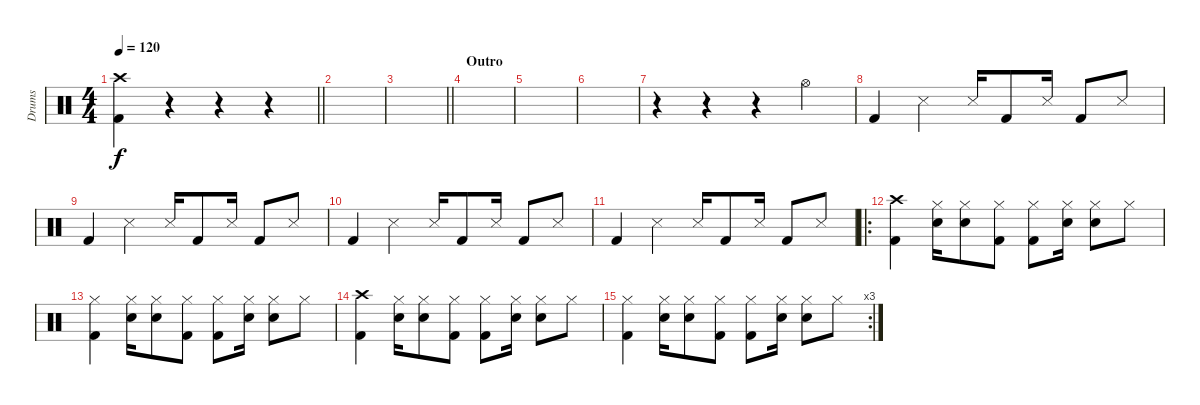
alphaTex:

\track ("Drums" "Drums") {instrument percussion}
\staff {score}
\articulation defaults
\ts (4 4)
\tempo 120
\clef neutral
\barLineRight lightlight
\ks c
("Crash high (hit)" "Kick (hit) 2").4{dy f} r.4 r.4 r.4 |
|
\barLineRight lightlight
|
\section ("" "Outro")
|
|
|
r.4 r.4 r.4 "Hi-Hat (open)".4 |
"Kick (hit) 2".4 "Snare (side stick) 3".4 "Snare (side stick) 3".16 "Kick (hit) 2".8 "Snare (side stick) 3".16 "Kick (hit) 2".8 "Snare (side stick) 3".8 |
"Kick (hit) 2".4 "Snare (side stick) 3".4 "Snare (side stick) 3".16 "Kick (hit) 2".8 "Snare (side stick) 3".16 "Kick (hit) 2".8 "Snare (side stick) 3".8 |
"Kick (hit) 2".4 "Snare (side stick) 3".4 "Snare (side stick) 3".16 "Kick (hit) 2".8 "Snare (side stick) 3".16 "Kick (hit) 2".8 "Snare (side stick) 3".8 |
"Kick (hit) 2".4 "Snare (side stick) 3".4 "Snare (side stick) 3".16 "Kick (hit) 2".8 "Snare (side stick) 3".16 "Kick (hit) 2".8 "Snare (side stick) 3".8 |
\ro
("Crash high (hit)" "Kick (hit) 2").4 ("Hi-Hat (closed)" "Snare (hit) 2").16 ("Hi-Hat (closed)" "Snare (hit) 2").8 ("Hi-Hat (closed)" "Kick (hit) 2").8 ("Hi-Hat (closed)" "Kick (hit) 2").8 ("Hi-Hat (closed)" "Snare (hit) 2").16 ("Hi-Hat (closed)" "Snare (hit) 2").8 "Hi-Hat (closed)".8 |
("Hi-Hat (closed)" "Kick (hit) 2").4 ("Hi-Hat (closed)" "Snare (hit) 2").16 ("Hi-Hat (closed)" "Snare (hit) 2").8 ("Hi-Hat (closed)" "Kick (hit) 2").8 ("Hi-Hat (closed)" "Kick (hit) 2").8 ("Hi-Hat (closed)" "Snare (hit) 2").16 ("Hi-Hat (closed)" "Snare (hit) 2").8 "Hi-Hat (closed)".8 |
("Crash high (hit)" "Kick (hit) 2").4 ("Hi-Hat (closed)" "Snare (hit) 2").16 ("Hi-Hat (closed)" "Snare (hit) 2").8 ("Hi-Hat (closed)" "Kick (hit) 2").8 ("Hi-Hat (closed)" "Kick (hit) 2").8 ("Hi-Hat (closed)" "Snare (hit) 2").16 ("Hi-Hat (closed)" "Snare (hit) 2").8 "Hi-Hat (closed)".8 |
\rc 3
("Hi-Hat (closed)" "Kick (hit) 2").4 ("Hi-Hat (closed)" "Snare (hit) 2").16 ("Hi-Hat (closed)" "Snare (hit) 2").8 ("Hi-Hat (closed)" "Kick (hit) 2").8 ("Hi-Hat (closed)" "Kick (hit) 2").8 ("Hi-Hat (closed)" "Snare (hit) 2").16 ("Hi-Hat (closed)" "Snare (hit) 2").8 "Hi-Hat (closed)".8
